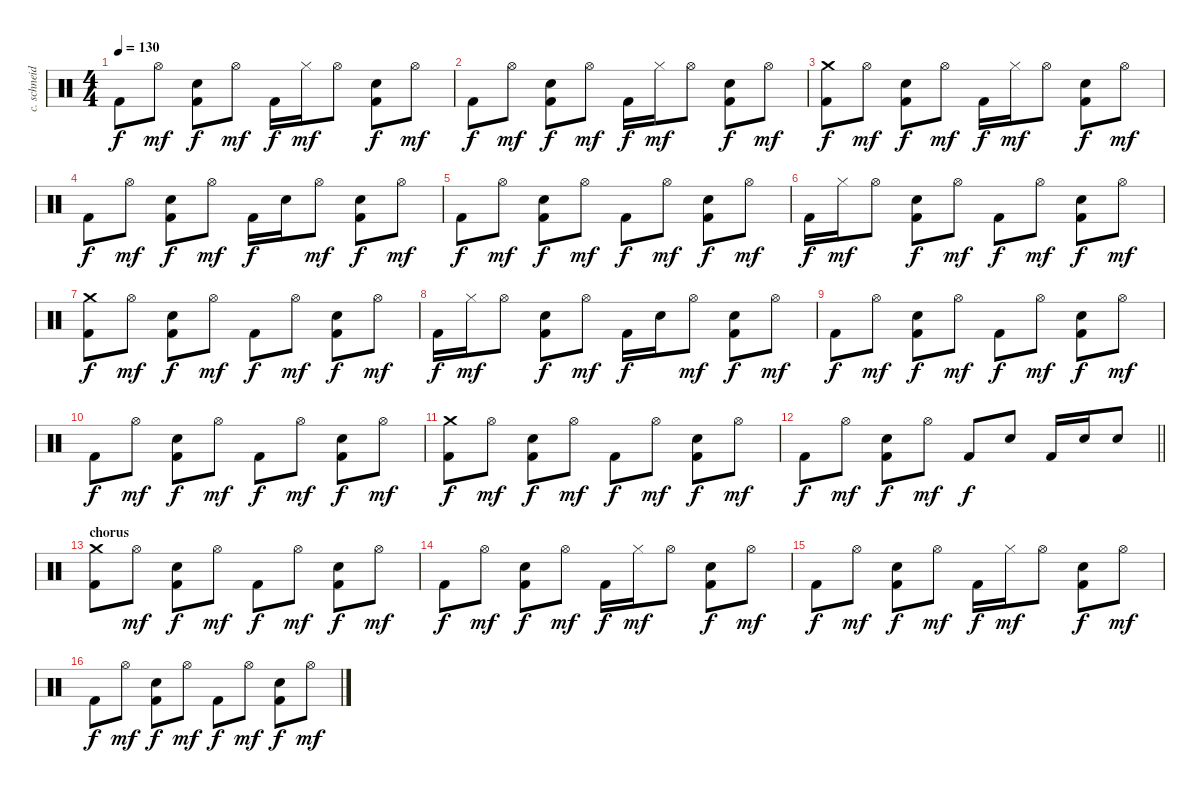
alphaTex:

\track ("c. schneider - drums" "c. schneid") {instrument percussion}
\staff {score}
\articulation defaults
\ts (4 4)
\tempo 130
\clef neutral
\ks c "Kick (hit) 2".8{dy f} "Hi-Hat (open)".8{dy mf}
("Electric Snare (hit)" "Kick (hit) 2").8{dy f} "Hi-Hat (open)".8{dy mf} "Kick (hit) 2".16{dy f} "Hi-Hat (closed)".16{dy mf} "Hi-Hat (open)".8 ("Electric Snare (hit)" "Kick (hit) 2").8{dy f} "Hi-Hat (open)".8{dy mf} |
"Kick (hit) 2".8{dy f} "Hi-Hat (open)".8{dy mf} ("Electric Snare (hit)" "Kick (hit) 2").8{dy f} "Hi-Hat (open)".8{dy mf} "Kick (hit) 2".16{dy f} "Hi-Hat (closed)".16{dy mf} "Hi-Hat (open)".8 ("Electric Snare (hit)" "Kick (hit) 2").8{dy f} "Hi-Hat (open)".8{dy mf} |
("Crash medium (hit)" "Kick (hit) 2").8{dy f} "Hi-Hat (open)".8{dy mf} ("Electric Snare (hit)" "Kick (hit) 2").8{dy f} "Hi-Hat (open)".8{dy mf} "Kick (hit) 2".16{dy f} "Hi-Hat (closed)".16{dy mf} "Hi-Hat (open)".8 ("Electric Snare (hit)" "Kick (hit) 2").8{dy f} "Hi-Hat (open)".8{dy mf} |
"Kick (hit) 2".8{dy f} "Hi-Hat (open)".8{dy mf} ("Electric Snare (hit)" "Kick (hit) 2").8{dy f} "Hi-Hat (open)".8{dy mf} "Kick (hit) 2".16{dy f} "Electric Snare (hit)".16 "Hi-Hat (open)".8{dy mf} ("Electric Snare (hit)" "Kick (hit) 2").8{dy f} "Hi-Hat (open)".8{dy mf} |
"Kick (hit) 2".8{dy f} "Hi-Hat (open)".8{dy mf} ("Electric Snare (hit)" "Kick (hit) 2").8{dy f} "Hi-Hat (open)".8{dy mf} "Kick (hit) 2".8{dy f} "Hi-Hat (open)".8{dy mf} ("Electric Snare (hit)" "Kick (hit) 2").8{dy f} "Hi-Hat (open)".8{dy mf} |
"Kick (hit) 2".16{dy f} "Hi-Hat (closed)".16{dy mf} "Hi-Hat (open)".8 ("Electric Snare (hit)" "Kick (hit) 2").8{dy f} "Hi-Hat (open)".8{dy mf} "Kick (hit) 2".8{dy f} "Hi-Hat (open)".8{dy mf} ("Electric Snare (hit)" "Kick (hit) 2").8{dy f} "Hi-Hat (open)".8{dy mf} |
("Crash medium (hit)" "Kick (hit) 2").8{dy f} "Hi-Hat (open)".8{dy mf} ("Electric Snare (hit)" "Kick (hit) 2").8{dy f} "Hi-Hat (open)".8{dy mf} "Kick (hit) 2".8{dy f} "Hi-Hat (open)".8{dy mf} ("Electric Snare (hit)" "Kick (hit) 2").8{dy f} "Hi-Hat (open)".8{dy mf} |
"Kick (hit) 2".16{dy f} "Hi-Hat (closed)".16{dy mf} "Hi-Hat (open)".8 ("Electric Snare (hit)" "Kick (hit) 2").8{dy f} "Hi-Hat (open)".8{dy mf} "Kick (hit) 2".16{dy f} "Electric Snare (hit)".16 "Hi-Hat (open)".8{dy mf} ("Electric Snare (hit)" "Kick (hit) 2").8{dy f} "Hi-Hat (open)".8{dy mf} |
"Kick (hit) 2".8{dy f} "Hi-Hat (open)".8{dy mf} ("Electric Snare (hit)" "Kick (hit) 2").8{dy f} "Hi-Hat (open)".8{dy mf} "Kick (hit) 2".8{dy f} "Hi-Hat (open)".8{dy mf} ("Electric Snare (hit)" "Kick (hit) 2").8{dy f} "Hi-Hat (open)".8{dy mf} |
"Kick (hit) 2".8{dy f} "Hi-Hat (open)".8{dy mf} ("Electric Snare (hit)" "Kick (hit) 2").8{dy f} "Hi-Hat (open)".8{dy mf} "Kick (hit) 2".8{dy f} "Hi-Hat (open)".8{dy mf} ("Electric Snare (hit)" "Kick (hit) 2").8{dy f} "Hi-Hat (open)".8{dy mf} |
("Crash medium (hit)" "Kick (hit) 2").8{dy f} "Hi-Hat (open)".8{dy mf} ("Electric Snare (hit)" "Kick (hit) 2").8{dy f} "Hi-Hat (open)".8{dy mf} "Kick (hit) 2".8{dy f} "Hi-Hat (open)".8{dy mf} ("Electric Snare (hit)" "Kick (hit) 2").8{dy f} "Hi-Hat (open)".8{dy mf} |
\barLineRight lightlight "Kick (hit) 2".8{dy f} "Hi-Hat (open)".8{dy mf}
("Electric Snare (hit)" "Kick (hit) 2").8{dy f} "Hi-Hat (open)".8{dy mf} "Kick (hit) 2".8{dy f} "Electric Snare (hit)".8 "Kick (hit) 2".16 "Electric Snare (hit)".16 "Electric Snare (hit)".8 |
\section ("" "chorus")
("Crash medium (hit)" "Kick (hit) 2").8 "Hi-Hat (open)".8{dy mf} ("Electric Snare (hit)" "Kick (hit) 2").8{dy f} "Hi-Hat (open)".8{dy mf} "Kick (hit) 2".8{dy f} "Hi-Hat (open)".8{dy mf} ("Electric Snare (hit)" "Kick (hit) 2").8{dy f} "Hi-Hat (open)".8{dy mf} |
"Kick (hit) 2".8{dy f} "Hi-Hat (open)".8{dy mf} ("Electric Snare (hit)" "Kick (hit) 2").8{dy f} "Hi-Hat (open)".8{dy mf} "Kick (hit) 2".16{dy f} "Hi-Hat (closed)".16{dy mf} "Hi-Hat (open)".8 ("Electric Snare (hit)" "Kick (hit) 2").8{dy f} "Hi-Hat (open)".8{dy mf} |
"Kick (hit) 2".8{dy f} "Hi-Hat (open)".8{dy mf} ("Electric Snare (hit)" "Kick (hit) 2").8{dy f} "Hi-Hat (open)".8{dy mf} "Kick (hit) 2".16{dy f} "Hi-Hat (closed)".16{dy mf} "Hi-Hat (open)".8 ("Electric Snare (hit)" "Kick (hit) 2").8{dy f} "Hi-Hat (open)".8{dy mf} |
"Kick (hit) 2".8{dy f} "Hi-Hat (open)".8{dy mf} ("Electric Snare (hit)" "Kick (hit) 2").8{dy f} "Hi-Hat (open)".8{dy mf} "Kick (hit) 2".8{dy f} "Hi-Hat (open)".8{dy mf} ("Electric Snare (hit)" "Kick (hit) 2").8{dy f} "Hi-Hat (open)".8{dy mf}
